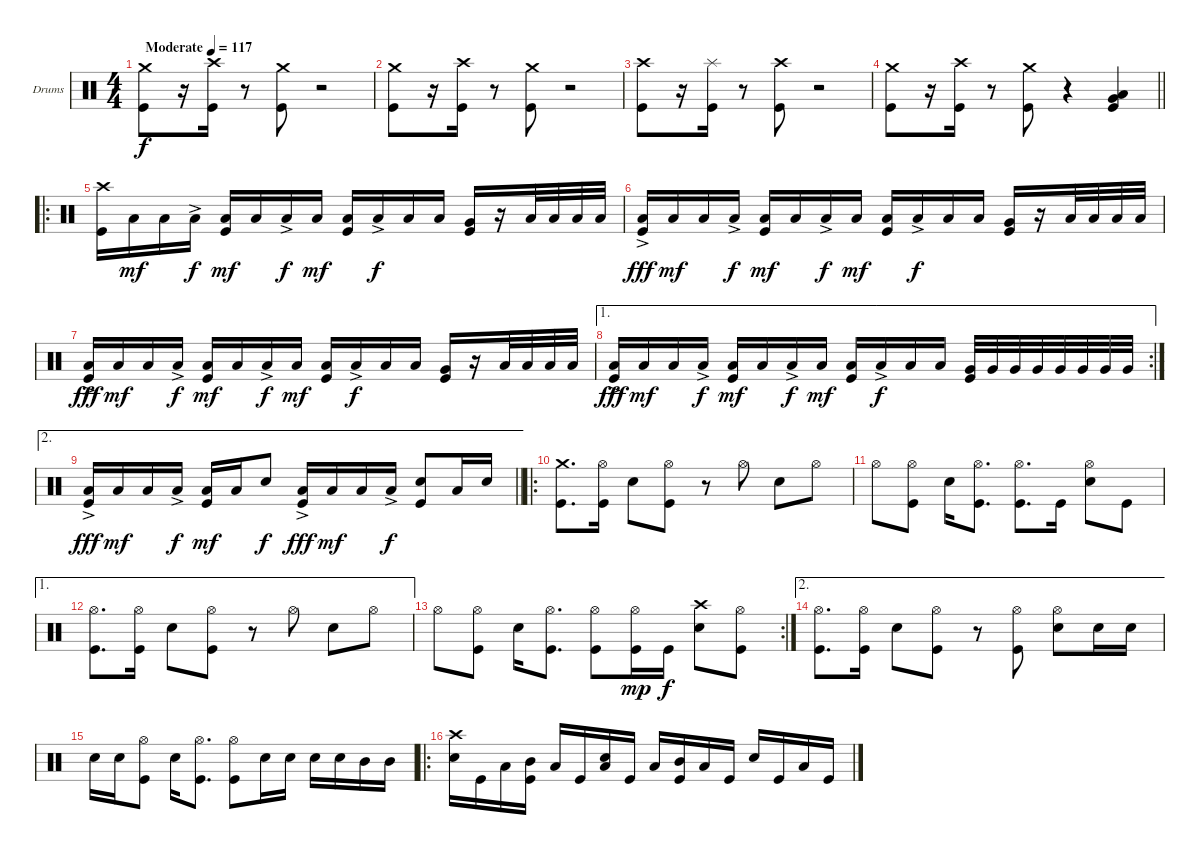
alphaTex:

\bracketExtendMode groupsimilarinstruments
\firstSystemTrackNameOrientation horizontal
\otherSystemsTrackNameOrientation horizontal
\track ("Dominic Drums" "Drums") {instrument percussion}
\staff {score}
\articulation defaults
\ts (4 4)
\beaming (8 2 2 2 2)
\tempo (117 "Moderate")
\clef neutral
\ks c
("Crash medium (hit)" "Kick (hit)").8{dy f} r.16 ("Crash high (hit)" "Kick (hit)").16 r.8 ("Crash medium (hit)" "Kick (hit)").8 r.2 |
("Crash medium (hit)" "Kick (hit)").8 r.16 ("Crash high (hit)" "Kick (hit)").16 r.8 ("Crash medium (hit)" "Kick (hit)").8 r.2 |
("Crash high (hit)" "Kick (hit)").8 r.16 ("Splash (hit)" "Kick (hit)").16 r.8 ("Crash high (hit)" "Kick (hit)").8 r.2 |
\barLineRight lightlight
("Crash medium (hit)" "Kick (hit)").8 r.16 ("Crash high (hit)" "Kick (hit)").16 r.8 ("Crash medium (hit)" "Kick (hit)").8 r.4 ("Low Tom (hit)" "Very Low Tom (hit)" "Kick (hit)").4 |
\ro
("Crash high (hit)" "Kick (hit)").16 "Low Tom (hit)".16{dy mf} "Low Tom (hit)".16 "Low Tom (hit)"{ac}.16{dy f} ("Low Tom (hit)" "Kick (hit)").16{dy mf} "Low Tom (hit)".16 "Low Tom (hit)"{ac}.16{dy f} "Low Tom (hit)".16{dy mf} ("Low Tom (hit)" "Kick (hit)").16 "Low Tom (hit)"{ac}.16{dy f} "Low Tom (hit)".16 "Low Tom (hit)".16 ("Very Low Tom (hit)" "Kick (hit)").16 r.16 "Low Tom (hit)".32 "Low Tom (hit)".32 "Low Tom (hit)".32 "Low Tom (hit)".32 |
("Low Tom (hit)"{ac} "Kick (hit)").16{dy fff} "Low Tom (hit)".16{dy mf} "Low Tom (hit)".16 "Low Tom (hit)"{ac}.16{dy f} ("Low Tom (hit)" "Kick (hit)").16{dy mf} "Low Tom (hit)".16 "Low Tom (hit)"{ac}.16{dy f} "Low Tom (hit)".16{dy mf} ("Low Tom (hit)" "Kick (hit)").16 "Low Tom (hit)"{ac}.16{dy f} "Low Tom (hit)".16 "Low Tom (hit)".16 ("Very Low Tom (hit)" "Kick (hit)").16 r.16 "Low Tom (hit)".32 "Low Tom (hit)".32 "Low Tom (hit)".32 "Low Tom (hit)".32 |
("Low Tom (hit)"{ac} "Kick (hit)").16{dy fff} "Low Tom (hit)".16{dy mf} "Low Tom (hit)".16 "Low Tom (hit)"{ac}.16{dy f} ("Low Tom (hit)" "Kick (hit)").16{dy mf} "Low Tom (hit)".16 "Low Tom (hit)"{ac}.16{dy f} "Low Tom (hit)".16{dy mf} ("Low Tom (hit)" "Kick (hit)").16 "Low Tom (hit)"{ac}.16{dy f} "Low Tom (hit)".16 "Low Tom (hit)".16 ("Very Low Tom (hit)" "Kick (hit)").16 r.16 "Low Tom (hit)".32 "Low Tom (hit)".32 "Low Tom (hit)".32 "Low Tom (hit)".32 |
\ae 1
\rc 2
("Low Tom (hit)"{ac} "Kick (hit)").16{dy fff} "Low Tom (hit)".16{dy mf} "Low Tom (hit)".16 "Low Tom (hit)"{ac}.16{dy f} ("Low Tom (hit)" "Kick (hit)").16{dy mf} "Low Tom (hit)".16 "Low Tom (hit)"{ac}.16{dy f} "Low Tom (hit)".16{dy mf} ("Low Tom (hit)" "Kick (hit)").16 "Low Tom (hit)"{ac}.16{dy f} "Low Tom (hit)".16 "Low Tom (hit)".16 ("Very Low Tom (hit)" "Kick (hit)").32 "Very Low Tom (hit)".32 "Very Low Tom (hit)".32 "Very Low Tom (hit)".32 "Very Low Tom (hit)".32 "Very Low Tom (hit)".32 "Very Low Tom (hit)".32 "Very Low Tom (hit)".32 |
\ae 2
\barLineRight lightlight
("Low Tom (hit)"{ac} "Kick (hit)").16{dy fff} "Low Tom (hit)".16{dy mf} "Low Tom (hit)".16 "Low Tom (hit)"{ac}.16{dy f} ("Low Tom (hit)" "Kick (hit)").16{dy mf} "Low Tom (hit)".16 "Snare (hit) 2".8{dy f} ("Low Tom (hit)"{ac} "Kick (hit)").16{dy fff} "Low Tom (hit)".16{dy mf} "Low Tom (hit)".16 "Low Tom (hit)"{ac}.16{dy f} ("Snare (hit) 2" "Kick (hit)").8 "Low Tom (hit)".16 "Snare (hit) 2".16 |
\ro
("Crash medium (hit)" "Kick (hit)").8{d} ("Hi-Hat (open)" "Kick (hit)").16 "Snare (hit) 2".8 ("Hi-Hat (open)" "Kick (hit)").8 r.8 "Hi-Hat (open)".8 "Snare (hit) 2".8 "Hi-Hat (open)".8 |
"Hi-Hat (open)".8 ("Hi-Hat (open)" "Kick (hit)").8 "Snare (hit) 2".16 ("Hi-Hat (open)" "Kick (hit)").8{d} ("Hi-Hat (open)" "Kick (hit)").8{d} "Kick (hit)".16 ("Hi-Hat (open)" "Snare (hit) 2").8 "Kick (hit)".8 |
\ae 1
("Hi-Hat (open)" "Kick (hit)").8{d} ("Hi-Hat (open)" "Kick (hit)").16 "Snare (hit) 2".8 ("Hi-Hat (open)" "Kick (hit)").8 r.8 "Hi-Hat (open)".8 "Snare (hit) 2".8 "Hi-Hat (open)".8 |
\rc 2 "Hi-Hat (open)".8
("Hi-Hat (open)" "Kick (hit)").8 "Snare (hit) 2".16 ("Hi-Hat (open)" "Kick (hit)").8{d} ("Hi-Hat (open)" "Kick (hit)").8 ("Hi-Hat (open)" "Kick (hit)").16{dy mp} "Kick (hit)".16{dy f} ("Crash high (hit)" "Snare (hit) 2").8 ("Hi-Hat (open)" "Kick (hit)").8 |
\ae 2
("Hi-Hat (open)" "Kick (hit)").8{d} ("Hi-Hat (open)" "Kick (hit)").16 "Snare (hit) 2".8 ("Hi-Hat (open)" "Kick (hit)").8 r.8 ("Hi-Hat (open)" "Kick (hit)").8 ("Hi-Hat (open)" "Snare (hit) 2").8 "Snare (hit) 2".16 "Snare (hit) 2".16 |
"Snare (hit) 2".16 "Snare (hit) 2".16 ("Hi-Hat (open)" "Kick (hit)").8 "Snare (hit) 2".16 ("Hi-Hat (open)" "Kick (hit)").8{d} ("Hi-Hat (open)" "Kick (hit)").8 "Snare (hit) 2".16 "Snare (hit) 2".16 "Snare (hit) 2".16 "Snare (hit) 2".16 "Mid Tom (hit)".16 "Mid Tom (hit)".16 |
\ro
("Crash high (hit)" "Snare (hit) 2").16 "Kick (hit)".16 "Low Tom (hit)".16 ("Mid Tom (hit)" "Kick (hit)").16 "Low Tom (hit)".16 "Kick (hit)".16 ("Snare (hit) 2" "Low Tom (hit)").16 "Kick (hit)".16 "Low Tom (hit)".16 ("Mid Tom (hit)" "Kick (hit)").16 "Low Tom (hit)".16 "Kick (hit)".16 "Snare (hit) 2".16 "Kick (hit)".16 "Low Tom (hit)".16 "Kick (hit)".16
